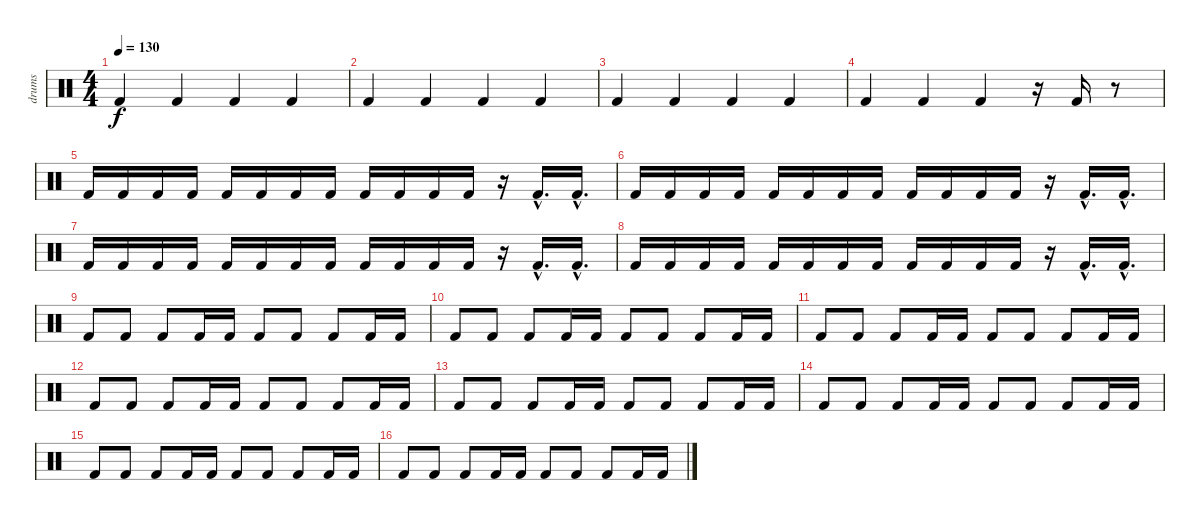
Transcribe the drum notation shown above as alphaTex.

\track ("drums" "drums") {instrument percussion}
\staff {score}
\articulation defaults
\ts (4 4)
\tempo 130
\clef neutral
\ks c "Kick (hit) 2".4{dy f} "Kick (hit) 2".4 "Kick (hit) 2".4 "Kick (hit) 2".4
|
"Kick (hit) 2".4 "Kick (hit) 2".4 "Kick (hit) 2".4 "Kick (hit) 2".4 |
"Kick (hit) 2".4 "Kick (hit) 2".4 "Kick (hit) 2".4 "Kick (hit) 2".4 |
"Kick (hit) 2".4 "Kick (hit) 2".4 "Kick (hit) 2".4 r.16 "Kick (hit) 2".16 r.8 |
"Kick (hit) 2".16 "Kick (hit) 2".16 "Kick (hit) 2".16 "Kick (hit) 2".16 "Kick (hit) 2".16 "Kick (hit) 2".16 "Kick (hit) 2".16 "Kick (hit) 2".16 "Kick (hit) 2".16 "Kick (hit) 2".16 "Kick (hit) 2".16 "Kick (hit) 2".16 r.16 "Kick (hit) 2"{hac}.16{d} "Kick (hit) 2"{hac}.16{d} |
"Kick (hit) 2".16 "Kick (hit) 2".16 "Kick (hit) 2".16 "Kick (hit) 2".16 "Kick (hit) 2".16 "Kick (hit) 2".16 "Kick (hit) 2".16 "Kick (hit) 2".16 "Kick (hit) 2".16 "Kick (hit) 2".16 "Kick (hit) 2".16 "Kick (hit) 2".16 r.16 "Kick (hit) 2"{hac}.16{d} "Kick (hit) 2"{hac}.16{d} |
"Kick (hit) 2".16 "Kick (hit) 2".16 "Kick (hit) 2".16 "Kick (hit) 2".16 "Kick (hit) 2".16 "Kick (hit) 2".16 "Kick (hit) 2".16 "Kick (hit) 2".16 "Kick (hit) 2".16 "Kick (hit) 2".16 "Kick (hit) 2".16 "Kick (hit) 2".16 r.16 "Kick (hit) 2"{hac}.16{d} "Kick (hit) 2"{hac}.16{d} |
"Kick (hit) 2".16 "Kick (hit) 2".16 "Kick (hit) 2".16 "Kick (hit) 2".16 "Kick (hit) 2".16 "Kick (hit) 2".16 "Kick (hit) 2".16 "Kick (hit) 2".16 "Kick (hit) 2".16 "Kick (hit) 2".16 "Kick (hit) 2".16 "Kick (hit) 2".16 r.16 "Kick (hit) 2"{hac}.16{d} "Kick (hit) 2"{hac}.16{d} |
"Kick (hit) 2".8 "Kick (hit) 2".8 "Kick (hit) 2".8 "Kick (hit) 2".16 "Kick (hit) 2".16 "Kick (hit) 2".8 "Kick (hit) 2".8 "Kick (hit) 2".8 "Kick (hit) 2".16 "Kick (hit) 2".16 |
"Kick (hit) 2".8 "Kick (hit) 2".8 "Kick (hit) 2".8 "Kick (hit) 2".16 "Kick (hit) 2".16 "Kick (hit) 2".8 "Kick (hit) 2".8 "Kick (hit) 2".8 "Kick (hit) 2".16 "Kick (hit) 2".16 |
"Kick (hit) 2".8 "Kick (hit) 2".8 "Kick (hit) 2".8 "Kick (hit) 2".16 "Kick (hit) 2".16 "Kick (hit) 2".8 "Kick (hit) 2".8 "Kick (hit) 2".8 "Kick (hit) 2".16 "Kick (hit) 2".16 |
"Kick (hit) 2".8 "Kick (hit) 2".8 "Kick (hit) 2".8 "Kick (hit) 2".16 "Kick (hit) 2".16 "Kick (hit) 2".8 "Kick (hit) 2".8 "Kick (hit) 2".8 "Kick (hit) 2".16 "Kick (hit) 2".16 |
"Kick (hit) 2".8 "Kick (hit) 2".8 "Kick (hit) 2".8 "Kick (hit) 2".16 "Kick (hit) 2".16 "Kick (hit) 2".8 "Kick (hit) 2".8 "Kick (hit) 2".8 "Kick (hit) 2".16 "Kick (hit) 2".16 |
"Kick (hit) 2".8 "Kick (hit) 2".8 "Kick (hit) 2".8 "Kick (hit) 2".16 "Kick (hit) 2".16 "Kick (hit) 2".8 "Kick (hit) 2".8 "Kick (hit) 2".8 "Kick (hit) 2".16 "Kick (hit) 2".16 |
"Kick (hit) 2".8 "Kick (hit) 2".8 "Kick (hit) 2".8 "Kick (hit) 2".16 "Kick (hit) 2".16 "Kick (hit) 2".8 "Kick (hit) 2".8 "Kick (hit) 2".8 "Kick (hit) 2".16 "Kick (hit) 2".16 |
"Kick (hit) 2".8 "Kick (hit) 2".8 "Kick (hit) 2".8 "Kick (hit) 2".16 "Kick (hit) 2".16 "Kick (hit) 2".8 "Kick (hit) 2".8 "Kick (hit) 2".8 "Kick (hit) 2".16 "Kick (hit) 2".16
